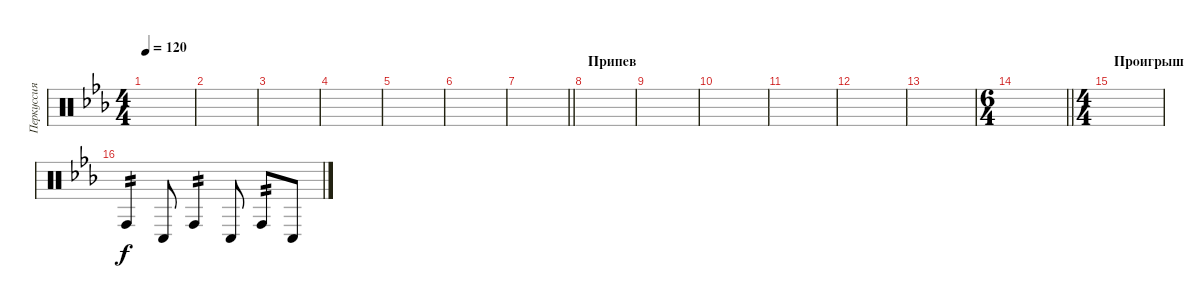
\track ("Перкуссия" "Перкуссия") {instrument percussion}
\staff {score}
\articulation defaults
\ts (4 4)
\tempo 120
\clef neutral
\ks cminor
|
|
|
|
|
|
\barLineRight lightlight
|
\section ("" "Припев")
|
|
|
|
|
|
\ts (6 4)
\barLineRight lightlight
|
\ts (4 4)
\section ("" "Проигрыш")
|
"Conga high (hit)".4{tp 2} "Conga low (hit)".8 "Conga high (hit)".4{tp 2} "Conga low (hit)".8 "Conga high (hit)".8{tp 2} "Conga low (hit)".8
